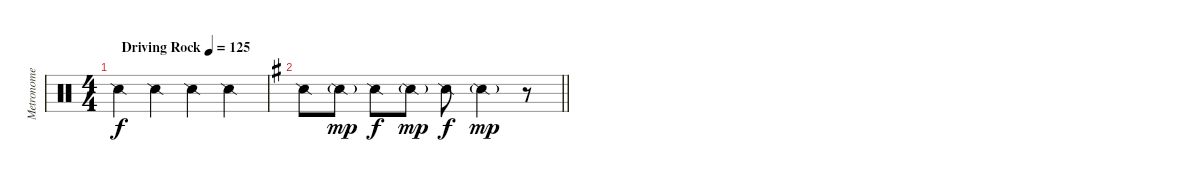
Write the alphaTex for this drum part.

\track ("Metronome" "Metronome") {instrument percussion}
\staff {score}
\articulation defaults
\ts (4 4)
\tempo (125 "Driving Rock")
\clef neutral
\ks c "Snare (side stick) 2".4{dy f} "Snare (side stick) 2".4 "Snare (side stick) 2".4 "Snare (side stick) 2".4
|
\barLineRight lightlight
\ks g "Snare (side stick) 2".8 "Snare (side stick) 2"{g}.8{dy mp} "Snare (side stick) 2".8{dy f} "Snare (side stick) 2"{g}.8{dy mp} "Snare (side stick) 2".8{dy f} "Snare (side stick) 2"{g}.4{dy mp}
r.8
